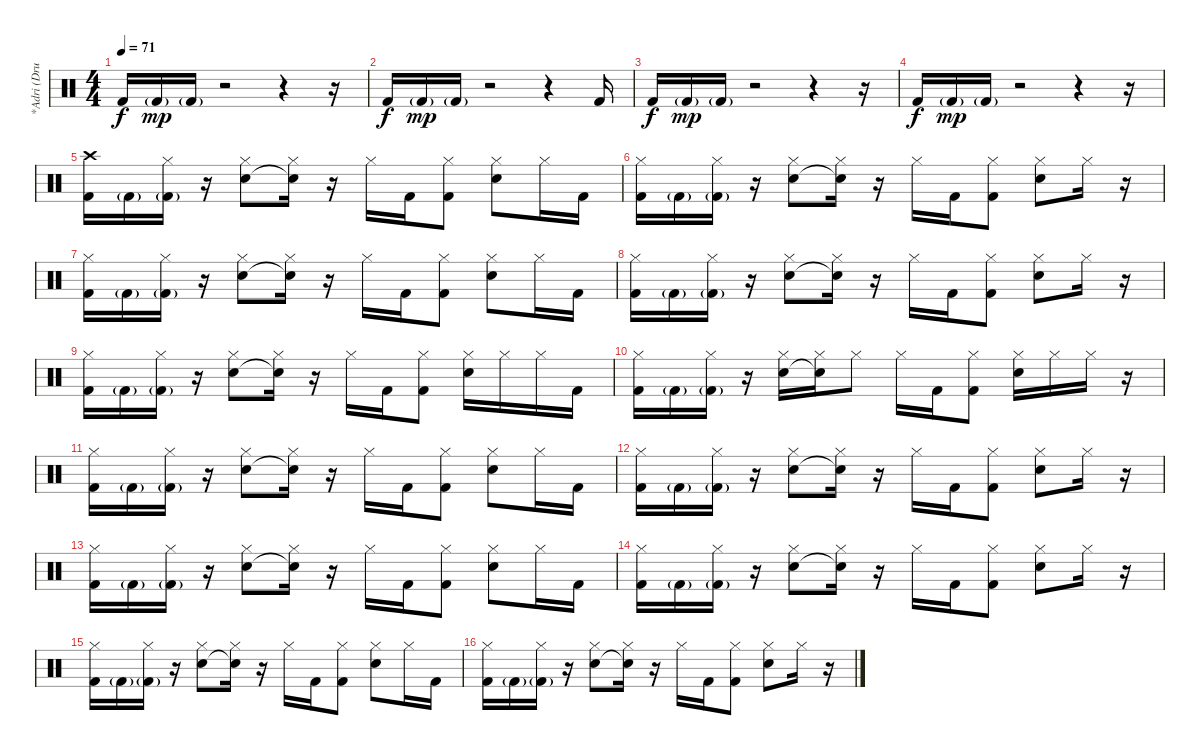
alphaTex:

\track ("*Adri (Drum)" "*Adri (Dru") {instrument percussion}
\staff {score}
\articulation defaults
\ts (4 4)
\tempo 71
\clef neutral
\ks c "Kick (hit) 2".16{dy f} "Kick (hit) 2"{g}.16{dy mp} "Kick (hit) 2"{g}.16
r.2 r.4 r.16 |
"Kick (hit) 2".16{dy f} "Kick (hit) 2"{g}.16{dy mp} "Kick (hit) 2"{g}.16 r.2 r.4 "Kick (hit) 2".16 |
"Kick (hit) 2".16{dy f} "Kick (hit) 2"{g}.16{dy mp} "Kick (hit) 2"{g}.16 r.2 r.4 r.16 |
"Kick (hit) 2".16{dy f} "Kick (hit) 2"{g}.16{dy mp} "Kick (hit) 2"{g}.16 r.2 r.4 r.16 |
("Kick (hit) 2" "Crash high (hit)").16 "Kick (hit) 2"{g}.16 ("Kick (hit) 2"{g} "Hi-Hat (closed)").16 r.16 ("Electric Snare (hit)" "Hi-Hat (closed)").8 ("Snare (hit)"{t} "Hi-Hat (closed)").16 r.16 "Hi-Hat (closed)".16 "Kick (hit) 2".16 ("Kick (hit) 2" "Hi-Hat (closed)").8 ("Electric Snare (hit)" "Hi-Hat (closed)").8 "Hi-Hat (closed)".16 "Kick (hit) 2".16 |
("Kick (hit) 2" "Hi-Hat (closed)").16 "Kick (hit) 2"{g}.16 ("Kick (hit) 2"{g} "Hi-Hat (closed)").16 r.16 ("Electric Snare (hit)" "Hi-Hat (closed)").8 ("Snare (hit)"{t} "Hi-Hat (closed)").16 r.16 "Hi-Hat (closed)".16 "Kick (hit) 2".16 ("Kick (hit) 2" "Hi-Hat (closed)").8 ("Electric Snare (hit)" "Hi-Hat (closed)").8 "Hi-Hat (closed)".16 r.16 |
("Kick (hit) 2" "Hi-Hat (closed)").16 "Kick (hit) 2"{g}.16 ("Kick (hit) 2"{g} "Hi-Hat (closed)").16 r.16 ("Electric Snare (hit)" "Hi-Hat (closed)").8 ("Snare (hit)"{t} "Hi-Hat (closed)").16 r.16 "Hi-Hat (closed)".16 "Kick (hit) 2".16 ("Kick (hit) 2" "Hi-Hat (closed)").8 ("Electric Snare (hit)" "Hi-Hat (closed)").8 "Hi-Hat (closed)".16 "Kick (hit) 2".16 |
("Kick (hit) 2" "Hi-Hat (closed)").16 "Kick (hit) 2"{g}.16 ("Kick (hit) 2"{g} "Hi-Hat (closed)").16 r.16 ("Electric Snare (hit)" "Hi-Hat (closed)").8 ("Snare (hit)"{t} "Hi-Hat (closed)").16 r.16 "Hi-Hat (closed)".16 "Kick (hit) 2".16 ("Kick (hit) 2" "Hi-Hat (closed)").8 ("Electric Snare (hit)" "Hi-Hat (closed)").8 "Hi-Hat (closed)".16 r.16 |
("Kick (hit) 2" "Hi-Hat (closed)").16 "Kick (hit) 2"{g}.16 ("Kick (hit) 2"{g} "Hi-Hat (closed)").16 r.16 ("Electric Snare (hit)" "Hi-Hat (closed)").8 ("Snare (hit)"{t} "Hi-Hat (closed)").16 r.16 "Hi-Hat (closed)".16 "Kick (hit) 2".16 ("Kick (hit) 2" "Hi-Hat (closed)").8 ("Electric Snare (hit)" "Hi-Hat (closed)").16 "Hi-Hat (closed)".16 "Hi-Hat (closed)".16 "Kick (hit) 2".16 |
("Kick (hit) 2" "Hi-Hat (closed)").16 "Kick (hit) 2"{g}.16 ("Kick (hit) 2"{g} "Hi-Hat (closed)").16 r.16 ("Electric Snare (hit)" "Hi-Hat (closed)").16 ("Snare (hit)"{t} "Hi-Hat (closed)").16 "Hi-Hat (closed)".8 "Hi-Hat (closed)".16 "Kick (hit) 2".16 ("Kick (hit) 2" "Hi-Hat (closed)").8 ("Electric Snare (hit)" "Hi-Hat (closed)").16 "Hi-Hat (closed)".16 "Hi-Hat (closed)".16 r.16 |
("Kick (hit) 2" "Hi-Hat (closed)").16 "Kick (hit) 2"{g}.16 ("Kick (hit) 2"{g} "Hi-Hat (closed)").16 r.16 ("Electric Snare (hit)" "Hi-Hat (closed)").8 ("Snare (hit)"{t} "Hi-Hat (closed)").16 r.16 "Hi-Hat (closed)".16 "Kick (hit) 2".16 ("Kick (hit) 2" "Hi-Hat (closed)").8 ("Electric Snare (hit)" "Hi-Hat (closed)").8 "Hi-Hat (closed)".16 "Kick (hit) 2".16 |
("Kick (hit) 2" "Hi-Hat (closed)").16 "Kick (hit) 2"{g}.16 ("Kick (hit) 2"{g} "Hi-Hat (closed)").16 r.16 ("Electric Snare (hit)" "Hi-Hat (closed)").8 ("Snare (hit)"{t} "Hi-Hat (closed)").16 r.16 "Hi-Hat (closed)".16 "Kick (hit) 2".16 ("Kick (hit) 2" "Hi-Hat (closed)").8 ("Electric Snare (hit)" "Hi-Hat (closed)").8 "Hi-Hat (closed)".16 r.16 |
("Kick (hit) 2" "Hi-Hat (closed)").16 "Kick (hit) 2"{g}.16 ("Kick (hit) 2"{g} "Hi-Hat (closed)").16 r.16 ("Electric Snare (hit)" "Hi-Hat (closed)").8 ("Snare (hit)"{t} "Hi-Hat (closed)").16 r.16 "Hi-Hat (closed)".16 "Kick (hit) 2".16 ("Kick (hit) 2" "Hi-Hat (closed)").8 ("Electric Snare (hit)" "Hi-Hat (closed)").8 "Hi-Hat (closed)".16 "Kick (hit) 2".16 |
("Kick (hit) 2" "Hi-Hat (closed)").16 "Kick (hit) 2"{g}.16 ("Kick (hit) 2"{g} "Hi-Hat (closed)").16 r.16 ("Electric Snare (hit)" "Hi-Hat (closed)").8 ("Snare (hit)"{t} "Hi-Hat (closed)").16 r.16 "Hi-Hat (closed)".16 "Kick (hit) 2".16 ("Kick (hit) 2" "Hi-Hat (closed)").8 ("Electric Snare (hit)" "Hi-Hat (closed)").8 "Hi-Hat (closed)".16 r.16 |
("Kick (hit) 2" "Hi-Hat (closed)").16 "Kick (hit) 2"{g}.16 ("Kick (hit) 2"{g} "Hi-Hat (closed)").16 r.16 ("Electric Snare (hit)" "Hi-Hat (closed)").8 ("Snare (hit)"{t} "Hi-Hat (closed)").16 r.16 "Hi-Hat (closed)".16 "Kick (hit) 2".16 ("Kick (hit) 2" "Hi-Hat (closed)").8 ("Electric Snare (hit)" "Hi-Hat (closed)").8 "Hi-Hat (closed)".16 "Kick (hit) 2".16 |
("Kick (hit) 2" "Hi-Hat (closed)").16 "Kick (hit) 2"{g}.16 ("Kick (hit) 2"{g} "Hi-Hat (closed)").16 r.16 ("Electric Snare (hit)" "Hi-Hat (closed)").8 ("Snare (hit)"{t} "Hi-Hat (closed)").16 r.16 "Hi-Hat (closed)".16 "Kick (hit) 2".16 ("Kick (hit) 2" "Hi-Hat (closed)").8 ("Electric Snare (hit)" "Hi-Hat (closed)").8 "Hi-Hat (closed)".16 r.16
